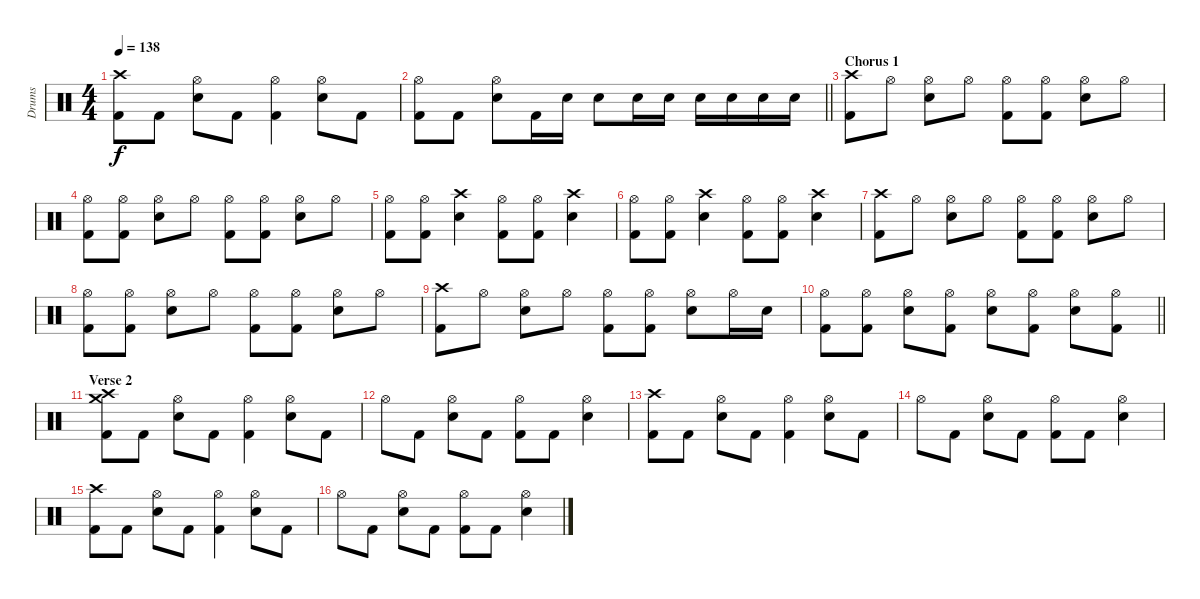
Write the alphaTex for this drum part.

\track ("Drums" "Drums") {instrument percussion}
\staff {score}
\articulation defaults
\ts (4 4)
\tempo 138
\clef neutral
\ks c
("Crash high (hit)" "Kick (hit) 2").8{dy f} "Kick (hit) 2".8 ("Hi-Hat (open)" "Snare (hit) 2").8 "Kick (hit) 2".8 ("Hi-Hat (open)" "Kick (hit) 2").4 ("Hi-Hat (open)" "Snare (hit) 2").8 "Kick (hit) 2".8 |
\barLineRight lightlight
("Hi-Hat (open)" "Kick (hit) 2").8 "Kick (hit) 2".8 ("Hi-Hat (open)" "Snare (hit) 2").8 "Kick (hit) 2".16 "Snare (hit) 2".16 "Snare (hit) 2".8 "Snare (hit) 2".16 "Snare (hit) 2".16 "Snare (hit) 2".16 "Snare (hit) 2".16 "Snare (hit) 2".16 "Snare (hit) 2".16 |
\section ("" "Chorus 1")
("Crash high (hit)" "Kick (hit) 2").8 "Hi-Hat (open)".8 ("Hi-Hat (open)" "Snare (hit) 2").8 "Hi-Hat (open)".8 ("Hi-Hat (open)" "Kick (hit) 2").8 ("Hi-Hat (open)" "Kick (hit) 2").8 ("Hi-Hat (open)" "Snare (hit) 2").8 "Hi-Hat (open)".8 |
("Hi-Hat (open)" "Kick (hit) 2").8 ("Hi-Hat (open)" "Kick (hit) 2").8 ("Hi-Hat (open)" "Snare (hit) 2").8 "Hi-Hat (open)".8 ("Hi-Hat (open)" "Kick (hit) 2").8 ("Hi-Hat (open)" "Kick (hit) 2").8 ("Hi-Hat (open)" "Snare (hit) 2").8 "Hi-Hat (open)".8 |
("Hi-Hat (open)" "Kick (hit) 2").8 ("Hi-Hat (open)" "Kick (hit) 2").8 ("Crash high (hit)" "Snare (hit) 2").4 ("Hi-Hat (open)" "Kick (hit) 2").8 ("Hi-Hat (open)" "Kick (hit) 2").8 ("Crash high (hit)" "Snare (hit) 2").4 |
("Hi-Hat (open)" "Kick (hit) 2").8 ("Hi-Hat (open)" "Kick (hit) 2").8 ("Crash high (hit)" "Snare (hit) 2").4 ("Hi-Hat (open)" "Kick (hit) 2").8 ("Hi-Hat (open)" "Kick (hit) 2").8 ("Crash high (hit)" "Snare (hit) 2").4 |
("Crash high (hit)" "Kick (hit) 2").8 "Hi-Hat (open)".8 ("Hi-Hat (open)" "Snare (hit) 2").8 "Hi-Hat (open)".8 ("Hi-Hat (open)" "Kick (hit) 2").8 ("Hi-Hat (open)" "Kick (hit) 2").8 ("Hi-Hat (open)" "Snare (hit) 2").8 "Hi-Hat (open)".8 |
("Hi-Hat (open)" "Kick (hit) 2").8 ("Hi-Hat (open)" "Kick (hit) 2").8 ("Hi-Hat (open)" "Snare (hit) 2").8 "Hi-Hat (open)".8 ("Hi-Hat (open)" "Kick (hit) 2").8 ("Hi-Hat (open)" "Kick (hit) 2").8 ("Hi-Hat (open)" "Snare (hit) 2").8 "Hi-Hat (open)".8 |
("Crash high (hit)" "Kick (hit) 2").8 "Hi-Hat (open)".8 ("Hi-Hat (open)" "Snare (hit) 2").8 "Hi-Hat (open)".8 ("Hi-Hat (open)" "Kick (hit) 2").8 ("Hi-Hat (open)" "Kick (hit) 2").8 ("Hi-Hat (open)" "Snare (hit) 2").8 "Hi-Hat (open)".16 "Snare (hit) 2".16 |
\barLineRight lightlight
("Hi-Hat (open)" "Kick (hit) 2").8 ("Hi-Hat (open)" "Kick (hit) 2").8 ("Hi-Hat (open)" "Snare (hit) 2").8 ("Hi-Hat (open)" "Kick (hit) 2").8 ("Hi-Hat (open)" "Snare (hit) 2").8 ("Hi-Hat (open)" "Kick (hit) 2").8 ("Hi-Hat (open)" "Snare (hit) 2").8 ("Hi-Hat (open)" "Kick (hit) 2").8 |
\section ("" "Verse 2")
("Crash high (hit)" "Crash medium (hit)" "Kick (hit) 2").8 "Kick (hit) 2".8 ("Hi-Hat (open)" "Snare (hit) 2").8 "Kick (hit) 2".8 ("Hi-Hat (open)" "Kick (hit) 2").4 ("Hi-Hat (open)" "Snare (hit) 2").8 "Kick (hit) 2".8 |
"Hi-Hat (open)".8 "Kick (hit) 2".8 ("Hi-Hat (open)" "Snare (hit) 2").8 "Kick (hit) 2".8 ("Hi-Hat (open)" "Kick (hit) 2").8 "Kick (hit) 2".8 ("Hi-Hat (open)" "Snare (hit) 2").4 |
("Crash high (hit)" "Kick (hit) 2").8 "Kick (hit) 2".8 ("Hi-Hat (open)" "Snare (hit) 2").8 "Kick (hit) 2".8 ("Hi-Hat (open)" "Kick (hit) 2").4 ("Hi-Hat (open)" "Snare (hit) 2").8 "Kick (hit) 2".8 |
"Hi-Hat (open)".8 "Kick (hit) 2".8 ("Hi-Hat (open)" "Snare (hit) 2").8 "Kick (hit) 2".8 ("Hi-Hat (open)" "Kick (hit) 2").8 "Kick (hit) 2".8 ("Hi-Hat (open)" "Snare (hit) 2").4 |
("Crash high (hit)" "Kick (hit) 2").8 "Kick (hit) 2".8 ("Hi-Hat (open)" "Snare (hit) 2").8 "Kick (hit) 2".8 ("Hi-Hat (open)" "Kick (hit) 2").4 ("Hi-Hat (open)" "Snare (hit) 2").8 "Kick (hit) 2".8 |
"Hi-Hat (open)".8 "Kick (hit) 2".8 ("Hi-Hat (open)" "Snare (hit) 2").8 "Kick (hit) 2".8 ("Hi-Hat (open)" "Kick (hit) 2").8 "Kick (hit) 2".8 ("Hi-Hat (open)" "Snare (hit) 2").4
